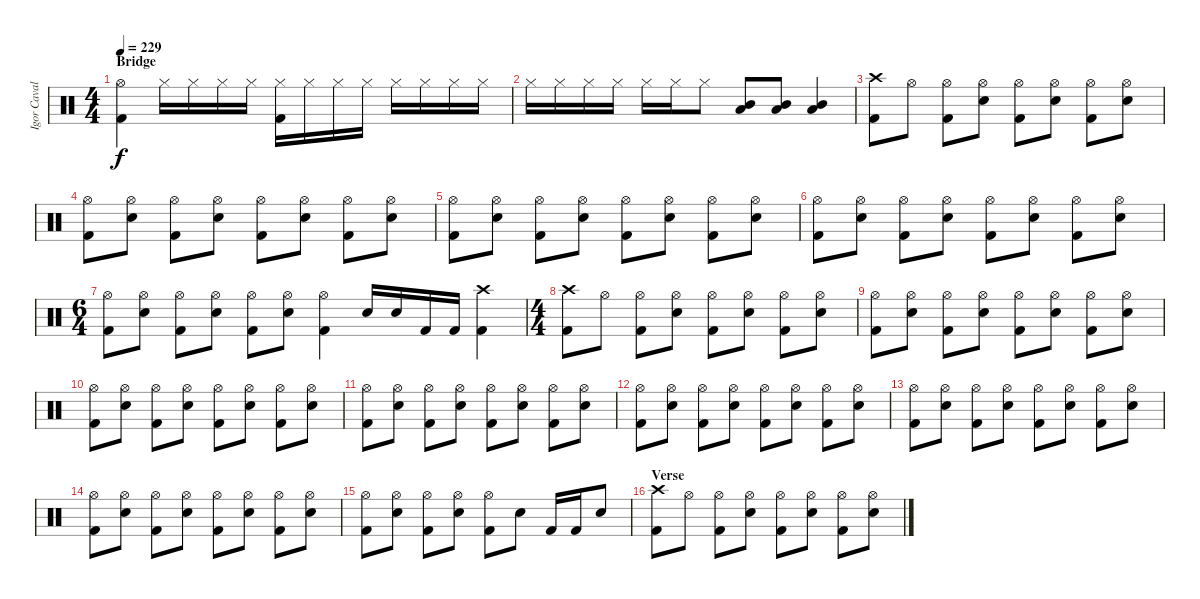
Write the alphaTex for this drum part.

\track ("Igor Cavalera" "Igor Caval") {instrument percussion}
\staff {score}
\articulation defaults
\ts (4 4)
\section ("" "Bridge")
\tempo 229
\clef neutral
\ks c
("Kick (hit) 2" "Hi-Hat (open)").4{dy f} "Hi-Hat (closed)".16 "Hi-Hat (closed)".16 "Hi-Hat (closed)".16 "Hi-Hat (closed)".16 ("Kick (hit) 2" "Hi-Hat (closed)").16 "Hi-Hat (closed)".16 "Hi-Hat (closed)".16 "Hi-Hat (closed)".16 "Hi-Hat (closed)".16 "Hi-Hat (closed)".16 "Hi-Hat (closed)".16 "Hi-Hat (closed)".16 |
"Hi-Hat (closed)".16 "Hi-Hat (closed)".16 "Hi-Hat (closed)".16 "Hi-Hat (closed)".16 "Hi-Hat (closed)".16 "Hi-Hat (closed)".16 "Hi-Hat (closed)".8 ("Low Tom (hit)" "Mid Tom (hit)").8 ("Low Tom (hit)" "Mid Tom (hit)").8 ("Low Tom (hit)" "Mid Tom (hit)").4 |
("Kick (hit) 2" "Crash high (hit)").8 "Hi-Hat (open)".8 ("Kick (hit) 2" "Hi-Hat (open)").8 ("Snare (hit) 2" "Hi-Hat (open)").8 ("Kick (hit) 2" "Hi-Hat (open)").8 ("Snare (hit) 2" "Hi-Hat (open)").8 ("Kick (hit) 2" "Hi-Hat (open)").8 ("Snare (hit) 2" "Hi-Hat (open)").8 |
("Kick (hit) 2" "Hi-Hat (open)").8 ("Snare (hit) 2" "Hi-Hat (open)").8 ("Kick (hit) 2" "Hi-Hat (open)").8 ("Snare (hit) 2" "Hi-Hat (open)").8 ("Kick (hit) 2" "Hi-Hat (open)").8 ("Snare (hit) 2" "Hi-Hat (open)").8 ("Kick (hit) 2" "Hi-Hat (open)").8 ("Snare (hit) 2" "Hi-Hat (open)").8 |
("Kick (hit) 2" "Hi-Hat (open)").8 ("Snare (hit) 2" "Hi-Hat (open)").8 ("Kick (hit) 2" "Hi-Hat (open)").8 ("Snare (hit) 2" "Hi-Hat (open)").8 ("Kick (hit) 2" "Hi-Hat (open)").8 ("Snare (hit) 2" "Hi-Hat (open)").8 ("Kick (hit) 2" "Hi-Hat (open)").8 ("Snare (hit) 2" "Hi-Hat (open)").8 |
("Kick (hit) 2" "Hi-Hat (open)").8 ("Snare (hit) 2" "Hi-Hat (open)").8 ("Kick (hit) 2" "Hi-Hat (open)").8 ("Snare (hit) 2" "Hi-Hat (open)").8 ("Kick (hit) 2" "Hi-Hat (open)").8 ("Snare (hit) 2" "Hi-Hat (open)").8 ("Kick (hit) 2" "Hi-Hat (open)").8 ("Snare (hit) 2" "Hi-Hat (open)").8 |
\ts (6 4)
("Kick (hit) 2" "Hi-Hat (open)").8 ("Snare (hit) 2" "Hi-Hat (open)").8 ("Kick (hit) 2" "Hi-Hat (open)").8 ("Snare (hit) 2" "Hi-Hat (open)").8 ("Kick (hit) 2" "Hi-Hat (open)").8 ("Snare (hit) 2" "Hi-Hat (open)").8 ("Kick (hit) 2" "Hi-Hat (open)").4 "Snare (hit) 2".16 "Snare (hit) 2".16 "Kick (hit) 2".16 "Kick (hit) 2".16 ("Kick (hit) 2" "Crash high (hit)").4 |
\ts (4 4)
("Kick (hit) 2" "Crash high (hit)").8 "Hi-Hat (open)".8 ("Kick (hit) 2" "Hi-Hat (open)").8 ("Snare (hit) 2" "Hi-Hat (open)").8 ("Kick (hit) 2" "Hi-Hat (open)").8 ("Snare (hit) 2" "Hi-Hat (open)").8 ("Kick (hit) 2" "Hi-Hat (open)").8 ("Snare (hit) 2" "Hi-Hat (open)").8 |
("Kick (hit) 2" "Hi-Hat (open)").8 ("Snare (hit) 2" "Hi-Hat (open)").8 ("Kick (hit) 2" "Hi-Hat (open)").8 ("Snare (hit) 2" "Hi-Hat (open)").8 ("Kick (hit) 2" "Hi-Hat (open)").8 ("Snare (hit) 2" "Hi-Hat (open)").8 ("Kick (hit) 2" "Hi-Hat (open)").8 ("Snare (hit) 2" "Hi-Hat (open)").8 |
("Kick (hit) 2" "Hi-Hat (open)").8 ("Snare (hit) 2" "Hi-Hat (open)").8 ("Kick (hit) 2" "Hi-Hat (open)").8 ("Snare (hit) 2" "Hi-Hat (open)").8 ("Kick (hit) 2" "Hi-Hat (open)").8 ("Snare (hit) 2" "Hi-Hat (open)").8 ("Kick (hit) 2" "Hi-Hat (open)").8 ("Snare (hit) 2" "Hi-Hat (open)").8 |
("Kick (hit) 2" "Hi-Hat (open)").8 ("Snare (hit) 2" "Hi-Hat (open)").8 ("Kick (hit) 2" "Hi-Hat (open)").8 ("Snare (hit) 2" "Hi-Hat (open)").8 ("Kick (hit) 2" "Hi-Hat (open)").8 ("Snare (hit) 2" "Hi-Hat (open)").8 ("Kick (hit) 2" "Hi-Hat (open)").8 ("Snare (hit) 2" "Hi-Hat (open)").8 |
("Kick (hit) 2" "Hi-Hat (open)").8 ("Snare (hit) 2" "Hi-Hat (open)").8 ("Kick (hit) 2" "Hi-Hat (open)").8 ("Snare (hit) 2" "Hi-Hat (open)").8 ("Kick (hit) 2" "Hi-Hat (open)").8 ("Snare (hit) 2" "Hi-Hat (open)").8 ("Kick (hit) 2" "Hi-Hat (open)").8 ("Snare (hit) 2" "Hi-Hat (open)").8 |
("Kick (hit) 2" "Hi-Hat (open)").8 ("Snare (hit) 2" "Hi-Hat (open)").8 ("Kick (hit) 2" "Hi-Hat (open)").8 ("Snare (hit) 2" "Hi-Hat (open)").8 ("Kick (hit) 2" "Hi-Hat (open)").8 ("Snare (hit) 2" "Hi-Hat (open)").8 ("Kick (hit) 2" "Hi-Hat (open)").8 ("Snare (hit) 2" "Hi-Hat (open)").8 |
("Kick (hit) 2" "Hi-Hat (open)").8 ("Snare (hit) 2" "Hi-Hat (open)").8 ("Kick (hit) 2" "Hi-Hat (open)").8 ("Snare (hit) 2" "Hi-Hat (open)").8 ("Kick (hit) 2" "Hi-Hat (open)").8 ("Snare (hit) 2" "Hi-Hat (open)").8 ("Kick (hit) 2" "Hi-Hat (open)").8 ("Snare (hit) 2" "Hi-Hat (open)").8 |
("Kick (hit) 2" "Hi-Hat (open)").8 ("Snare (hit) 2" "Hi-Hat (open)").8 ("Kick (hit) 2" "Hi-Hat (open)").8 ("Snare (hit) 2" "Hi-Hat (open)").8 ("Kick (hit) 2" "Hi-Hat (open)").8 "Snare (hit) 2".8 "Kick (hit) 2".16 "Kick (hit) 2".16 "Snare (hit) 2".8 |
\section ("" "Verse ")
("Kick (hit) 2" "Crash high (hit)").8 "Hi-Hat (open)".8 ("Kick (hit) 2" "Hi-Hat (open)").8 ("Snare (hit) 2" "Hi-Hat (open)").8 ("Kick (hit) 2" "Hi-Hat (open)").8 ("Snare (hit) 2" "Hi-Hat (open)").8 ("Kick (hit) 2" "Hi-Hat (open)").8 ("Snare (hit) 2" "Hi-Hat (open)").8
